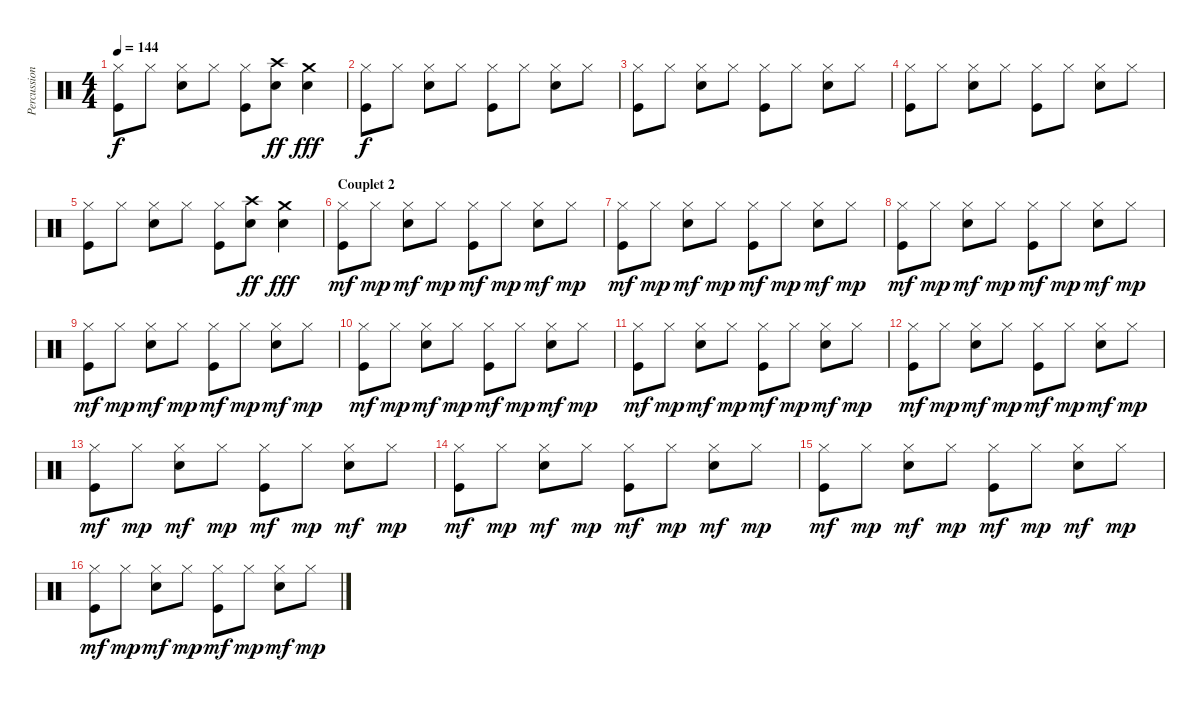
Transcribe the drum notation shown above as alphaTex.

\track ("Percussions" "Percussion") {instrument percussion}
\staff {score}
\articulation defaults
\ts (4 4)
\tempo 144
\clef neutral
\ks c
("Hi-Hat (closed)" "Kick (hit)").8{dy f} "Hi-Hat (closed)".8 ("Hi-Hat (closed)" "Snare (hit) 2").8 "Hi-Hat (closed)".8 ("Hi-Hat (closed)" "Kick (hit)").8 ("Crash high (hit)" "Snare (hit) 2").8{dy ff} ("Crash medium (hit)" "Snare (hit) 2").4{dy fff} |
("Hi-Hat (closed)" "Kick (hit)").8{dy f} "Hi-Hat (closed)".8 ("Hi-Hat (closed)" "Snare (hit) 2").8 "Hi-Hat (closed)".8 ("Hi-Hat (closed)" "Kick (hit)").8 "Hi-Hat (closed)".8 ("Hi-Hat (closed)" "Snare (hit) 2").8 "Hi-Hat (closed)".8 |
("Hi-Hat (closed)" "Kick (hit)").8 "Hi-Hat (closed)".8 ("Hi-Hat (closed)" "Snare (hit) 2").8 "Hi-Hat (closed)".8 ("Hi-Hat (closed)" "Kick (hit)").8 "Hi-Hat (closed)".8 ("Hi-Hat (closed)" "Snare (hit) 2").8 "Hi-Hat (closed)".8 |
("Hi-Hat (closed)" "Kick (hit)").8 "Hi-Hat (closed)".8 ("Hi-Hat (closed)" "Snare (hit) 2").8 "Hi-Hat (closed)".8 ("Hi-Hat (closed)" "Kick (hit)").8 "Hi-Hat (closed)".8 ("Hi-Hat (closed)" "Snare (hit) 2").8 "Hi-Hat (closed)".8 |
("Hi-Hat (closed)" "Kick (hit)").8 "Hi-Hat (closed)".8 ("Hi-Hat (closed)" "Snare (hit) 2").8 "Hi-Hat (closed)".8 ("Hi-Hat (closed)" "Kick (hit)").8 ("Crash high (hit)" "Snare (hit) 2").8{dy ff} ("Crash medium (hit)" "Snare (hit) 2").4{dy fff} |
\section ("" "Couplet 2")
("Hi-Hat (closed)" "Kick (hit)").8{dy mf} "Hi-Hat (closed)".8{dy mp} ("Hi-Hat (closed)" "Snare (hit) 2").8{dy mf} "Hi-Hat (closed)".8{dy mp} ("Hi-Hat (closed)" "Kick (hit)").8{dy mf} "Hi-Hat (closed)".8{dy mp} ("Hi-Hat (closed)" "Snare (hit) 2").8{dy mf} "Hi-Hat (closed)".8{dy mp} |
("Hi-Hat (closed)" "Kick (hit)").8{dy mf} "Hi-Hat (closed)".8{dy mp} ("Hi-Hat (closed)" "Snare (hit) 2").8{dy mf} "Hi-Hat (closed)".8{dy mp} ("Hi-Hat (closed)" "Kick (hit)").8{dy mf} "Hi-Hat (closed)".8{dy mp} ("Hi-Hat (closed)" "Snare (hit) 2").8{dy mf} "Hi-Hat (closed)".8{dy mp} |
("Hi-Hat (closed)" "Kick (hit)").8{dy mf} "Hi-Hat (closed)".8{dy mp} ("Hi-Hat (closed)" "Snare (hit) 2").8{dy mf} "Hi-Hat (closed)".8{dy mp} ("Hi-Hat (closed)" "Kick (hit)").8{dy mf} "Hi-Hat (closed)".8{dy mp} ("Hi-Hat (closed)" "Snare (hit) 2").8{dy mf} "Hi-Hat (closed)".8{dy mp} |
("Hi-Hat (closed)" "Kick (hit)").8{dy mf} "Hi-Hat (closed)".8{dy mp} ("Hi-Hat (closed)" "Snare (hit) 2").8{dy mf} "Hi-Hat (closed)".8{dy mp} ("Hi-Hat (closed)" "Kick (hit)").8{dy mf} "Hi-Hat (closed)".8{dy mp} ("Hi-Hat (closed)" "Snare (hit) 2").8{dy mf} "Hi-Hat (closed)".8{dy mp} |
("Hi-Hat (closed)" "Kick (hit)").8{dy mf} "Hi-Hat (closed)".8{dy mp} ("Hi-Hat (closed)" "Snare (hit) 2").8{dy mf} "Hi-Hat (closed)".8{dy mp} ("Hi-Hat (closed)" "Kick (hit)").8{dy mf} "Hi-Hat (closed)".8{dy mp} ("Hi-Hat (closed)" "Snare (hit) 2").8{dy mf} "Hi-Hat (closed)".8{dy mp} |
("Hi-Hat (closed)" "Kick (hit)").8{dy mf} "Hi-Hat (closed)".8{dy mp} ("Hi-Hat (closed)" "Snare (hit) 2").8{dy mf} "Hi-Hat (closed)".8{dy mp} ("Hi-Hat (closed)" "Kick (hit)").8{dy mf} "Hi-Hat (closed)".8{dy mp} ("Hi-Hat (closed)" "Snare (hit) 2").8{dy mf} "Hi-Hat (closed)".8{dy mp} |
("Hi-Hat (closed)" "Kick (hit)").8{dy mf} "Hi-Hat (closed)".8{dy mp} ("Hi-Hat (closed)" "Snare (hit) 2").8{dy mf} "Hi-Hat (closed)".8{dy mp} ("Hi-Hat (closed)" "Kick (hit)").8{dy mf} "Hi-Hat (closed)".8{dy mp} ("Hi-Hat (closed)" "Snare (hit) 2").8{dy mf} "Hi-Hat (closed)".8{dy mp} |
("Hi-Hat (closed)" "Kick (hit)").8{dy mf} "Hi-Hat (closed)".8{dy mp} ("Hi-Hat (closed)" "Snare (hit) 2").8{dy mf} "Hi-Hat (closed)".8{dy mp} ("Hi-Hat (closed)" "Kick (hit)").8{dy mf} "Hi-Hat (closed)".8{dy mp} ("Hi-Hat (closed)" "Snare (hit) 2").8{dy mf} "Hi-Hat (closed)".8{dy mp} |
("Hi-Hat (closed)" "Kick (hit)").8{dy mf} "Hi-Hat (closed)".8{dy mp} ("Hi-Hat (closed)" "Snare (hit) 2").8{dy mf} "Hi-Hat (closed)".8{dy mp} ("Hi-Hat (closed)" "Kick (hit)").8{dy mf} "Hi-Hat (closed)".8{dy mp} ("Hi-Hat (closed)" "Snare (hit) 2").8{dy mf} "Hi-Hat (closed)".8{dy mp} |
("Hi-Hat (closed)" "Kick (hit)").8{dy mf} "Hi-Hat (closed)".8{dy mp} ("Hi-Hat (closed)" "Snare (hit) 2").8{dy mf} "Hi-Hat (closed)".8{dy mp} ("Hi-Hat (closed)" "Kick (hit)").8{dy mf} "Hi-Hat (closed)".8{dy mp} ("Hi-Hat (closed)" "Snare (hit) 2").8{dy mf} "Hi-Hat (closed)".8{dy mp} |
("Hi-Hat (closed)" "Kick (hit)").8{dy mf} "Hi-Hat (closed)".8{dy mp} ("Hi-Hat (closed)" "Snare (hit) 2").8{dy mf} "Hi-Hat (closed)".8{dy mp} ("Hi-Hat (closed)" "Kick (hit)").8{dy mf} "Hi-Hat (closed)".8{dy mp} ("Hi-Hat (closed)" "Snare (hit) 2").8{dy mf} "Hi-Hat (closed)".8{dy mp}
